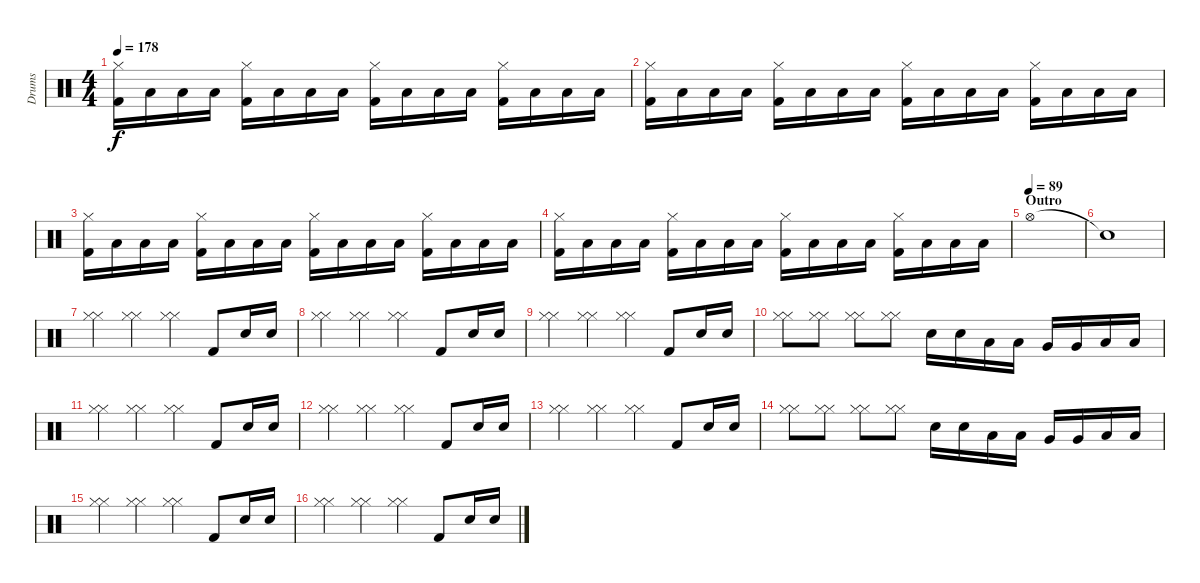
\track ("Drums" "Drums") {instrument percussion}
\staff {score}
\articulation defaults
\ts (4 4)
\tempo 178
\clef neutral
\ks c
("Kick (hit) 2" "Hi-Hat (closed)").16{dy f} "Low Tom (hit)".16 "Low Tom (hit)".16 "Low Tom (hit)".16 ("Kick (hit) 2" "Hi-Hat (closed)").16 "Low Tom (hit)".16 "Low Tom (hit)".16 "Low Tom (hit)".16 ("Kick (hit) 2" "Hi-Hat (closed)").16 "Low Tom (hit)".16 "Low Tom (hit)".16 "Low Tom (hit)".16 ("Hi-Hat (closed)" "Kick (hit) 2").16 "Low Tom (hit)".16 "Low Tom (hit)".16 "Low Tom (hit)".16 |
("Kick (hit) 2" "Hi-Hat (closed)").16 "Low Tom (hit)".16 "Low Tom (hit)".16 "Low Tom (hit)".16 ("Kick (hit) 2" "Hi-Hat (closed)").16 "Low Tom (hit)".16 "Low Tom (hit)".16 "Low Tom (hit)".16 ("Kick (hit) 2" "Hi-Hat (closed)").16 "Low Tom (hit)".16 "Low Tom (hit)".16 "Low Tom (hit)".16 ("Hi-Hat (closed)" "Kick (hit) 2").16 "Low Tom (hit)".16 "Low Tom (hit)".16 "Low Tom (hit)".16 |
("Kick (hit) 2" "Hi-Hat (closed)").16 "Low Tom (hit)".16 "Low Tom (hit)".16 "Low Tom (hit)".16 ("Kick (hit) 2" "Hi-Hat (closed)").16 "Low Tom (hit)".16 "Low Tom (hit)".16 "Low Tom (hit)".16 ("Kick (hit) 2" "Hi-Hat (closed)").16 "Low Tom (hit)".16 "Low Tom (hit)".16 "Low Tom (hit)".16 ("Hi-Hat (closed)" "Kick (hit) 2").16 "Low Tom (hit)".16 "Low Tom (hit)".16 "Low Tom (hit)".16 |
("Kick (hit) 2" "Hi-Hat (closed)").16 "Low Tom (hit)".16 "Low Tom (hit)".16 "Low Tom (hit)".16 ("Kick (hit) 2" "Hi-Hat (closed)").16 "Low Tom (hit)".16 "Low Tom (hit)".16 "Low Tom (hit)".16 ("Kick (hit) 2" "Hi-Hat (closed)").16 "Low Tom (hit)".16 "Low Tom (hit)".16 "Low Tom (hit)".16 ("Hi-Hat (closed)" "Kick (hit) 2").16 "Low Tom (hit)".16 "Low Tom (hit)".16 "Low Tom (hit)".16 |
\section ("" "Outro")
\tempo (89)
"Hi-Hat (open)".1 |
"Snare (hit)"{t}.1 |
("Hi-Hat (closed)" "Hi-Hat (closed)").4 ("Hi-Hat (closed)" "Hi-Hat (closed)").4 ("Hi-Hat (closed)" "Hi-Hat (closed)").4 "Kick (hit) 2".8 "Electric Snare (hit)".16 "Electric Snare (hit)".16 |
("Hi-Hat (closed)" "Hi-Hat (closed)").4 ("Hi-Hat (closed)" "Hi-Hat (closed)").4 ("Hi-Hat (closed)" "Hi-Hat (closed)").4 "Kick (hit) 2".8 "Electric Snare (hit)".16 "Electric Snare (hit)".16 |
("Hi-Hat (closed)" "Hi-Hat (closed)").4 ("Hi-Hat (closed)" "Hi-Hat (closed)").4 ("Hi-Hat (closed)" "Hi-Hat (closed)").4 "Kick (hit) 2".8 "Electric Snare (hit)".16 "Electric Snare (hit)".16 |
("Hi-Hat (closed)" "Hi-Hat (closed)").8 ("Hi-Hat (closed)" "Hi-Hat (closed)").8 ("Hi-Hat (closed)" "Hi-Hat (closed)").8 ("Hi-Hat (closed)" "Hi-Hat (closed)").8 "Electric Snare (hit)".16 "Electric Snare (hit)".16 "Low Tom (hit)".16 "Low Tom (hit)".16 "Very Low Tom (hit)".16 "Very Low Tom (hit)".16 "Low Floor Tom (hit)".16 "Low Floor Tom (hit)".16 |
("Hi-Hat (closed)" "Hi-Hat (closed)").4 ("Hi-Hat (closed)" "Hi-Hat (closed)").4 ("Hi-Hat (closed)" "Hi-Hat (closed)").4 "Kick (hit) 2".8 "Electric Snare (hit)".16 "Electric Snare (hit)".16 |
("Hi-Hat (closed)" "Hi-Hat (closed)").4 ("Hi-Hat (closed)" "Hi-Hat (closed)").4 ("Hi-Hat (closed)" "Hi-Hat (closed)").4 "Kick (hit) 2".8 "Electric Snare (hit)".16 "Electric Snare (hit)".16 |
("Hi-Hat (closed)" "Hi-Hat (closed)").4 ("Hi-Hat (closed)" "Hi-Hat (closed)").4 ("Hi-Hat (closed)" "Hi-Hat (closed)").4 "Kick (hit) 2".8 "Electric Snare (hit)".16 "Electric Snare (hit)".16 |
("Hi-Hat (closed)" "Hi-Hat (closed)").8 ("Hi-Hat (closed)" "Hi-Hat (closed)").8 ("Hi-Hat (closed)" "Hi-Hat (closed)").8 ("Hi-Hat (closed)" "Hi-Hat (closed)").8 "Electric Snare (hit)".16 "Electric Snare (hit)".16 "Low Tom (hit)".16 "Low Tom (hit)".16 "Very Low Tom (hit)".16 "Very Low Tom (hit)".16 "Low Floor Tom (hit)".16 "Low Floor Tom (hit)".16 |
("Hi-Hat (closed)" "Hi-Hat (closed)").4 ("Hi-Hat (closed)" "Hi-Hat (closed)").4 ("Hi-Hat (closed)" "Hi-Hat (closed)").4 "Kick (hit) 2".8 "Electric Snare (hit)".16 "Electric Snare (hit)".16 |
("Hi-Hat (closed)" "Hi-Hat (closed)").4 ("Hi-Hat (closed)" "Hi-Hat (closed)").4 ("Hi-Hat (closed)" "Hi-Hat (closed)").4 "Kick (hit) 2".8 "Electric Snare (hit)".16 "Electric Snare (hit)".16
